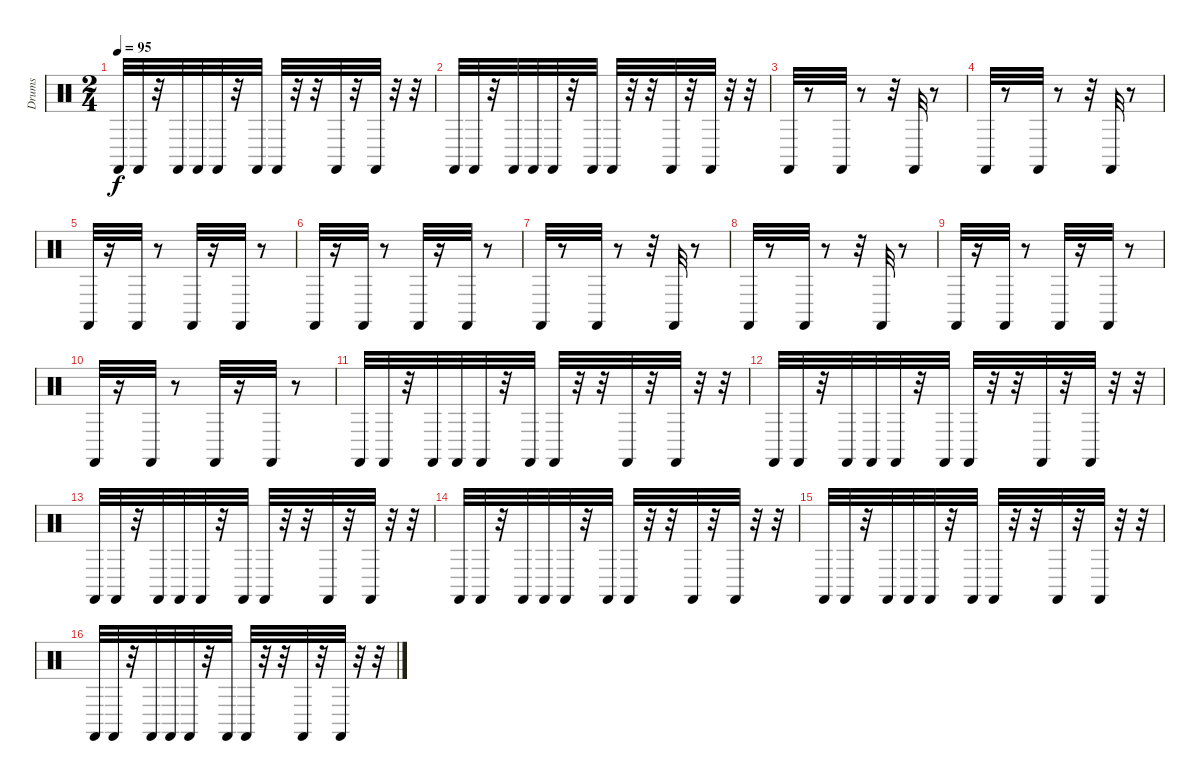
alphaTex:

\track ("Drums" "Drums") {instrument percussion}
\staff {score}
\articulation defaults
\ts (2 4)
\tempo 95
\clef neutral
\ks c "Castanets (hit)".32{dy f} "Castanets (hit)".32
r.32 "Castanets (hit)".32 "Castanets (hit)".32 "Castanets (hit)".32 r.32 "Castanets (hit)".32 "Castanets (hit)".32 r.32 r.32 "Castanets (hit)".32 r.32 "Castanets (hit)".32 r.32 r.32 |
"Castanets (hit)".32 "Castanets (hit)".32 r.32 "Castanets (hit)".32 "Castanets (hit)".32 "Castanets (hit)".32 r.32 "Castanets (hit)".32 "Castanets (hit)".32 r.32 r.32 "Castanets (hit)".32 r.32 "Castanets (hit)".32 r.32 r.32 |
"Castanets (hit)".32 r.8 "Castanets (hit)".32 r.8 r.32 "Castanets (hit)".32 r.8 |
"Castanets (hit)".32 r.8 "Castanets (hit)".32 r.8 r.32 "Castanets (hit)".32 r.8 |
"Castanets (hit)".32 r.16 "Castanets (hit)".32 r.8 "Castanets (hit)".32 r.16 "Castanets (hit)".32 r.8 |
"Castanets (hit)".32 r.16 "Castanets (hit)".32 r.8 "Castanets (hit)".32 r.16 "Castanets (hit)".32 r.8 |
"Castanets (hit)".32 r.8 "Castanets (hit)".32 r.8 r.32 "Castanets (hit)".32 r.8 |
"Castanets (hit)".32 r.8 "Castanets (hit)".32 r.8 r.32 "Castanets (hit)".32 r.8 |
"Castanets (hit)".32 r.16 "Castanets (hit)".32 r.8 "Castanets (hit)".32 r.16 "Castanets (hit)".32 r.8 |
"Castanets (hit)".32 r.16 "Castanets (hit)".32 r.8 "Castanets (hit)".32 r.16 "Castanets (hit)".32 r.8 |
"Castanets (hit)".32 "Castanets (hit)".32 r.32 "Castanets (hit)".32 "Castanets (hit)".32 "Castanets (hit)".32 r.32 "Castanets (hit)".32 "Castanets (hit)".32 r.32 r.32 "Castanets (hit)".32 r.32 "Castanets (hit)".32 r.32 r.32 |
"Castanets (hit)".32 "Castanets (hit)".32 r.32 "Castanets (hit)".32 "Castanets (hit)".32 "Castanets (hit)".32 r.32 "Castanets (hit)".32 "Castanets (hit)".32 r.32 r.32 "Castanets (hit)".32 r.32 "Castanets (hit)".32 r.32 r.32 |
"Castanets (hit)".32 "Castanets (hit)".32 r.32 "Castanets (hit)".32 "Castanets (hit)".32 "Castanets (hit)".32 r.32 "Castanets (hit)".32 "Castanets (hit)".32 r.32 r.32 "Castanets (hit)".32 r.32 "Castanets (hit)".32 r.32 r.32 |
"Castanets (hit)".32 "Castanets (hit)".32 r.32 "Castanets (hit)".32 "Castanets (hit)".32 "Castanets (hit)".32 r.32 "Castanets (hit)".32 "Castanets (hit)".32 r.32 r.32 "Castanets (hit)".32 r.32 "Castanets (hit)".32 r.32 r.32 |
"Castanets (hit)".32 "Castanets (hit)".32 r.32 "Castanets (hit)".32 "Castanets (hit)".32 "Castanets (hit)".32 r.32 "Castanets (hit)".32 "Castanets (hit)".32 r.32 r.32 "Castanets (hit)".32 r.32 "Castanets (hit)".32 r.32 r.32 |
"Castanets (hit)".32 "Castanets (hit)".32 r.32 "Castanets (hit)".32 "Castanets (hit)".32 "Castanets (hit)".32 r.32 "Castanets (hit)".32 "Castanets (hit)".32 r.32 r.32 "Castanets (hit)".32 r.32 "Castanets (hit)".32 r.32 r.32
